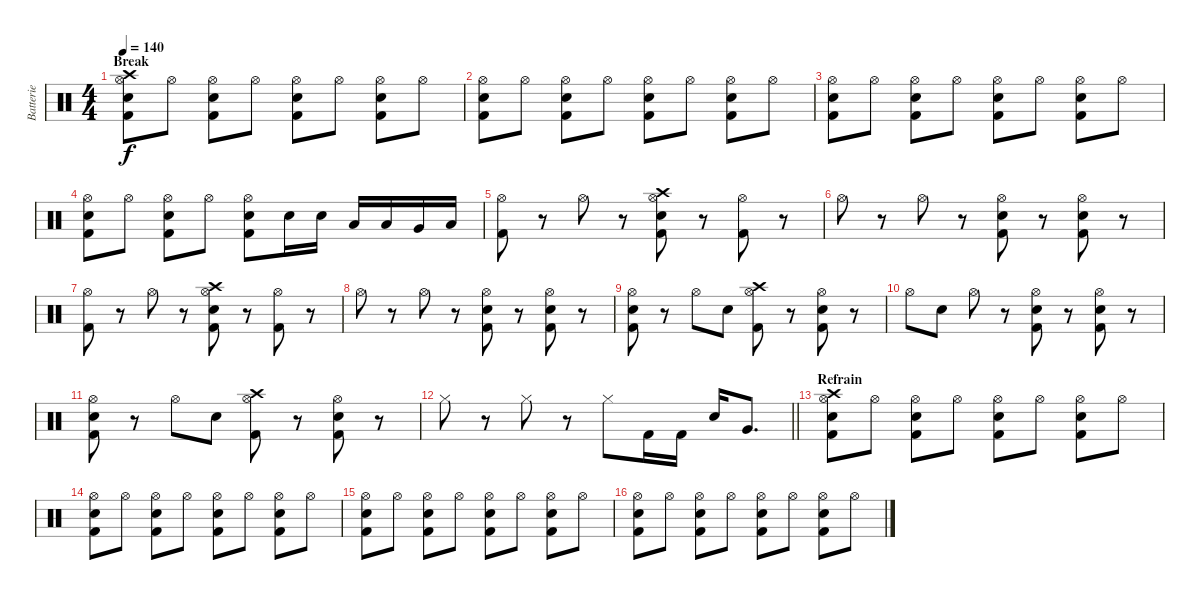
\track ("Batterie" "Batterie") {instrument percussion}
\staff {score}
\articulation defaults
\ts (4 4)
\section ("" "Break")
\tempo 140
\clef neutral
\ks c
("Crash high (hit)" "Hi-Hat (open)" "Electric Snare (hit)" "Kick (hit) 2").8{dy f} "Hi-Hat (open)".8 ("Hi-Hat (open)" "Electric Snare (hit)" "Kick (hit) 2").8 "Hi-Hat (open)".8 ("Hi-Hat (open)" "Electric Snare (hit)" "Kick (hit) 2").8 "Hi-Hat (open)".8 ("Hi-Hat (open)" "Electric Snare (hit)" "Kick (hit) 2").8 "Hi-Hat (open)".8 |
("Hi-Hat (open)" "Electric Snare (hit)" "Kick (hit) 2").8 "Hi-Hat (open)".8 ("Hi-Hat (open)" "Electric Snare (hit)" "Kick (hit) 2").8 "Hi-Hat (open)".8 ("Hi-Hat (open)" "Electric Snare (hit)" "Kick (hit) 2").8 "Hi-Hat (open)".8 ("Hi-Hat (open)" "Electric Snare (hit)" "Kick (hit) 2").8 "Hi-Hat (open)".8 |
("Hi-Hat (open)" "Electric Snare (hit)" "Kick (hit) 2").8 "Hi-Hat (open)".8 ("Hi-Hat (open)" "Electric Snare (hit)" "Kick (hit) 2").8 "Hi-Hat (open)".8 ("Hi-Hat (open)" "Electric Snare (hit)" "Kick (hit) 2").8 "Hi-Hat (open)".8 ("Hi-Hat (open)" "Electric Snare (hit)" "Kick (hit) 2").8 "Hi-Hat (open)".8 |
("Hi-Hat (open)" "Electric Snare (hit)" "Kick (hit) 2").8 "Hi-Hat (open)".8 ("Hi-Hat (open)" "Electric Snare (hit)" "Kick (hit) 2").8 "Hi-Hat (open)".8 ("Hi-Hat (open)" "Electric Snare (hit)" "Kick (hit) 2").8 "Electric Snare (hit)".16 "Electric Snare (hit)".16 "Low Tom (hit)".16 "Low Tom (hit)".16 "Very Low Tom (hit)".16 "Low Floor Tom (hit)".16 |
("Hi-Hat (open)" "Kick (hit) 2").8 r.8 "Hi-Hat (open)".8 r.8 ("Crash high (hit)" "Hi-Hat (open)" "Electric Snare (hit)" "Kick (hit) 2").8 r.8 ("Hi-Hat (open)" "Kick (hit) 2").8 r.8 |
"Hi-Hat (open)".8 r.8 "Hi-Hat (open)".8 r.8 ("Hi-Hat (open)" "Electric Snare (hit)" "Kick (hit) 2").8 r.8 ("Hi-Hat (open)" "Snare (hit) 2" "Kick (hit) 2").8 r.8 |
("Hi-Hat (open)" "Kick (hit) 2").8 r.8 "Hi-Hat (open)".8 r.8 ("Crash high (hit)" "Hi-Hat (open)" "Electric Snare (hit)" "Kick (hit) 2").8 r.8 ("Hi-Hat (open)" "Kick (hit) 2").8 r.8 |
"Hi-Hat (open)".8 r.8 "Hi-Hat (open)".8 r.8 ("Hi-Hat (open)" "Electric Snare (hit)" "Kick (hit) 2").8 r.8 ("Hi-Hat (open)" "Snare (hit) 2" "Kick (hit) 2").8 r.8 |
("Hi-Hat (open)" "Electric Snare (hit)" "Kick (hit) 2").8 r.8 "Hi-Hat (open)".8 "Electric Snare (hit)".8 ("Crash high (hit)" "Hi-Hat (open)" "Kick (hit) 2").8 r.8 ("Hi-Hat (open)" "Electric Snare (hit)" "Kick (hit) 2").8 r.8 |
"Hi-Hat (open)".8 "Electric Snare (hit)".8 "Hi-Hat (open)".8 r.8 ("Hi-Hat (open)" "Electric Snare (hit)" "Kick (hit) 2").8 r.8 ("Hi-Hat (open)" "Snare (hit) 2" "Kick (hit) 2").8 r.8 |
("Hi-Hat (open)" "Electric Snare (hit)" "Kick (hit) 2").8 r.8 "Hi-Hat (open)".8 "Electric Snare (hit)".8 ("Crash high (hit)" "Hi-Hat (open)" "Kick (hit) 2").8 r.8 ("Hi-Hat (open)" "Electric Snare (hit)" "Kick (hit) 2").8 r.8 |
\barLineRight lightlight "Hi-Hat (closed)".8
r.8 "Hi-Hat (closed)".8 r.8 "Hi-Hat (closed)".8 "Kick (hit) 2".16 "Kick (hit) 2".16 "Electric Snare (hit)".16 "Very Low Tom (hit)".8{d} |
\section ("" "Refrain")
("Crash high (hit)" "Hi-Hat (open)" "Electric Snare (hit)" "Kick (hit) 2").8 "Hi-Hat (open)".8 ("Hi-Hat (open)" "Electric Snare (hit)" "Kick (hit) 2").8 "Hi-Hat (open)".8 ("Hi-Hat (open)" "Electric Snare (hit)" "Kick (hit) 2").8 "Hi-Hat (open)".8 ("Hi-Hat (open)" "Electric Snare (hit)" "Kick (hit) 2").8 "Hi-Hat (open)".8 |
("Hi-Hat (open)" "Electric Snare (hit)" "Kick (hit) 2").8 "Hi-Hat (open)".8 ("Hi-Hat (open)" "Electric Snare (hit)" "Kick (hit) 2").8 "Hi-Hat (open)".8 ("Hi-Hat (open)" "Electric Snare (hit)" "Kick (hit) 2").8 "Hi-Hat (open)".8 ("Hi-Hat (open)" "Electric Snare (hit)" "Kick (hit) 2").8 "Hi-Hat (open)".8 |
("Hi-Hat (open)" "Electric Snare (hit)" "Kick (hit) 2").8 "Hi-Hat (open)".8 ("Hi-Hat (open)" "Electric Snare (hit)" "Kick (hit) 2").8 "Hi-Hat (open)".8 ("Hi-Hat (open)" "Electric Snare (hit)" "Kick (hit) 2").8 "Hi-Hat (open)".8 ("Hi-Hat (open)" "Electric Snare (hit)" "Kick (hit) 2").8 "Hi-Hat (open)".8 |
("Hi-Hat (open)" "Electric Snare (hit)" "Kick (hit) 2").8 "Hi-Hat (open)".8 ("Hi-Hat (open)" "Electric Snare (hit)" "Kick (hit) 2").8 "Hi-Hat (open)".8 ("Hi-Hat (open)" "Electric Snare (hit)" "Kick (hit) 2").8 "Hi-Hat (open)".8 ("Hi-Hat (open)" "Electric Snare (hit)" "Kick (hit) 2").8 "Hi-Hat (open)".8
